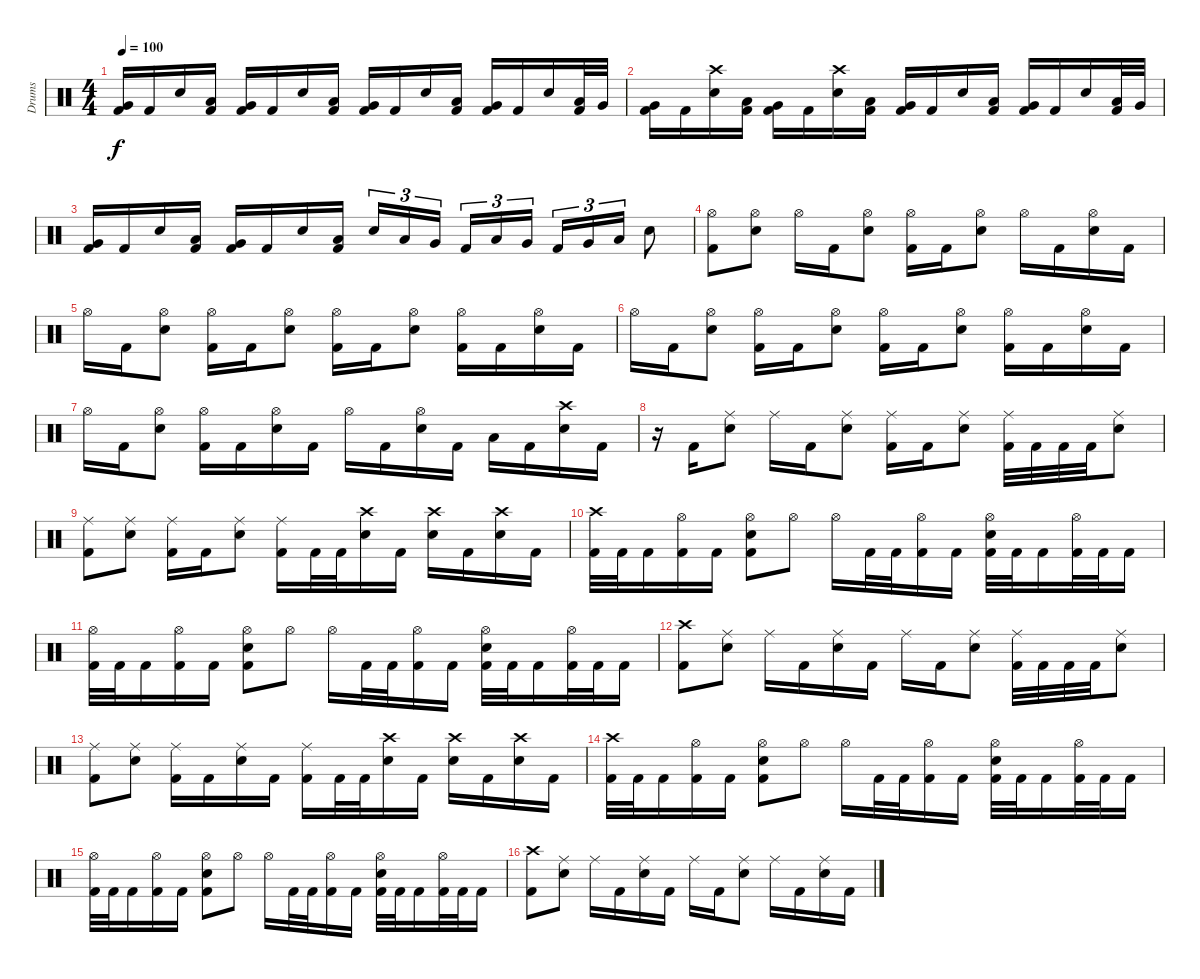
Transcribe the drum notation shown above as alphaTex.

\track ("Drums" "Drums") {instrument percussion}
\staff {score}
\articulation defaults
\ts (4 4)
\tempo 100
\clef neutral
\ks c
("Very Low Tom (hit)" "Kick (hit) 2").16{dy f} "Kick (hit) 2".16 "Electric Snare (hit)".16 ("Low Tom (hit)" "Kick (hit) 2").16 ("Very Low Tom (hit)" "Kick (hit) 2").16 "Kick (hit) 2".16 "Electric Snare (hit)".16 ("Low Tom (hit)" "Kick (hit) 2").16 ("Very Low Tom (hit)" "Kick (hit) 2").16 "Kick (hit) 2".16 "Electric Snare (hit)".16 ("Low Tom (hit)" "Kick (hit) 2").16 ("Very Low Tom (hit)" "Kick (hit) 2").16 "Kick (hit) 2".16 "Electric Snare (hit)".16 ("Low Tom (hit)" "Kick (hit) 2").32 "Very Low Tom (hit)".32 |
("Very Low Tom (hit)" "Kick (hit) 2").16 "Kick (hit) 2".16 ("Crash high (hit)" "Electric Snare (hit)").16 ("Low Tom (hit)" "Kick (hit) 2").16 ("Very Low Tom (hit)" "Kick (hit) 2").16 "Kick (hit) 2".16 ("Crash high (hit)" "Electric Snare (hit)").16 ("Low Tom (hit)" "Kick (hit) 2").16 ("Very Low Tom (hit)" "Kick (hit) 2").16 "Kick (hit) 2".16 "Electric Snare (hit)".16 ("Low Tom (hit)" "Kick (hit) 2").16 ("Very Low Tom (hit)" "Kick (hit) 2").16 "Kick (hit) 2".16 "Electric Snare (hit)".16 ("Low Tom (hit)" "Kick (hit) 2").32 "Very Low Tom (hit)".32 |
("Very Low Tom (hit)" "Kick (hit) 2").16 "Kick (hit) 2".16 "Electric Snare (hit)".16 ("Low Tom (hit)" "Kick (hit) 2").16 ("Very Low Tom (hit)" "Kick (hit) 2").16 "Kick (hit) 2".16 "Electric Snare (hit)".16 ("Low Tom (hit)" "Kick (hit) 2").16 "Electric Snare (hit)".16{tu (3 2)} "Low Tom (hit)".16{tu (3 2)} "Very Low Tom (hit)".16{tu (3 2)} "Kick (hit) 2".16{tu (3 2)} "Low Tom (hit)".16{tu (3 2)} "Very Low Tom (hit)".16{tu (3 2)} "Kick (hit) 2".16{tu (3 2)} "Very Low Tom (hit)".16{tu (3 2)} "Low Floor Tom (hit)".16{tu (3 2)} "Electric Snare (hit)".8 |
("Hi-Hat (open)" "Kick (hit) 2").8 ("Hi-Hat (open)" "Electric Snare (hit)").8 "Hi-Hat (open)".16 "Kick (hit) 2".16 ("Hi-Hat (open)" "Electric Snare (hit)").8 ("Hi-Hat (open)" "Kick (hit) 2").16 "Kick (hit) 2".16 ("Hi-Hat (open)" "Electric Snare (hit)").8 "Hi-Hat (open)".16 "Kick (hit) 2".16 ("Hi-Hat (open)" "Electric Snare (hit)").16 "Kick (hit) 2".16 |
"Hi-Hat (open)".16 "Kick (hit) 2".16 ("Hi-Hat (open)" "Electric Snare (hit)").8 ("Hi-Hat (open)" "Kick (hit) 2").16 "Kick (hit) 2".16 ("Hi-Hat (open)" "Electric Snare (hit)").8 ("Hi-Hat (open)" "Kick (hit) 2").16 "Kick (hit) 2".16 ("Hi-Hat (open)" "Electric Snare (hit)").8 ("Hi-Hat (open)" "Kick (hit) 2").16 "Kick (hit) 2".16 ("Hi-Hat (open)" "Electric Snare (hit)").16 "Kick (hit) 2".16 |
"Hi-Hat (open)".16 "Kick (hit) 2".16 ("Hi-Hat (open)" "Electric Snare (hit)").8 ("Hi-Hat (open)" "Kick (hit) 2").16 "Kick (hit) 2".16 ("Hi-Hat (open)" "Electric Snare (hit)").8 ("Hi-Hat (open)" "Kick (hit) 2").16 "Kick (hit) 2".16 ("Hi-Hat (open)" "Electric Snare (hit)").8 ("Hi-Hat (open)" "Kick (hit) 2").16 "Kick (hit) 2".16 ("Hi-Hat (open)" "Electric Snare (hit)").16 "Kick (hit) 2".16 |
"Hi-Hat (open)".16 "Kick (hit) 2".16 ("Hi-Hat (open)" "Electric Snare (hit)").8 ("Hi-Hat (open)" "Kick (hit) 2").16 "Kick (hit) 2".16 ("Hi-Hat (open)" "Electric Snare (hit)").16 "Kick (hit) 2".16 "Hi-Hat (open)".16 "Kick (hit) 2".16 ("Hi-Hat (open)" "Electric Snare (hit)").16 "Kick (hit) 2".16 "Low Tom (hit)".16 "Kick (hit) 2".16 ("Crash high (hit)" "Electric Snare (hit)").16 "Kick (hit) 2".16 |
r.16 "Kick (hit) 2".16 ("Ride (middle)" "Electric Snare (hit)").8 "Ride (middle)".16 "Kick (hit) 2".16 ("Ride (middle)" "Electric Snare (hit)").8 ("Ride (middle)" "Kick (hit) 2").16 "Kick (hit) 2".16 ("Ride (middle)" "Electric Snare (hit)").8 ("Ride (middle)" "Kick (hit) 2").32 "Kick (hit) 2".32 "Kick (hit) 2".32 "Kick (hit) 2".32 ("Ride (middle)" "Electric Snare (hit)").8 |
("Ride (middle)" "Kick (hit) 2").8 ("Ride (middle)" "Electric Snare (hit)").8 ("Ride (middle)" "Kick (hit) 2").16 "Kick (hit) 2".16 ("Ride (middle)" "Electric Snare (hit)").8 ("Ride (middle)" "Kick (hit) 2").16 "Kick (hit) 2".32 "Kick (hit) 2".32 ("Crash high (hit)" "Electric Snare (hit)").16 "Kick (hit) 2".16 ("Crash high (hit)" "Electric Snare (hit)").16 "Kick (hit) 2".16 ("Crash high (hit)" "Electric Snare (hit)").16 "Kick (hit) 2".16 |
("Crash high (hit)" "Kick (hit) 2").32 "Kick (hit) 2".32 "Kick (hit) 2".16 ("Hi-Hat (open)" "Kick (hit) 2").16 "Kick (hit) 2".16 ("Hi-Hat (open)" "Electric Snare (hit)" "Kick (hit) 2").8 "Hi-Hat (open)".8 "Hi-Hat (open)".16 "Kick (hit) 2".32 "Kick (hit) 2".32 ("Hi-Hat (open)" "Kick (hit) 2").16 "Kick (hit) 2".16 ("Hi-Hat (open)" "Electric Snare (hit)" "Kick (hit) 2").32 "Kick (hit) 2".32 "Kick (hit) 2".16 ("Hi-Hat (open)" "Kick (hit) 2").32 "Kick (hit) 2".32 "Kick (hit) 2".16 |
("Hi-Hat (open)" "Kick (hit) 2").32 "Kick (hit) 2".32 "Kick (hit) 2".16 ("Hi-Hat (open)" "Kick (hit) 2").16 "Kick (hit) 2".16 ("Hi-Hat (open)" "Electric Snare (hit)" "Kick (hit) 2").8 "Hi-Hat (open)".8 "Hi-Hat (open)".16 "Kick (hit) 2".32 "Kick (hit) 2".32 ("Hi-Hat (open)" "Kick (hit) 2").16 "Kick (hit) 2".16 ("Hi-Hat (open)" "Electric Snare (hit)" "Kick (hit) 2").32 "Kick (hit) 2".32 "Kick (hit) 2".16 ("Hi-Hat (open)" "Kick (hit) 2").32 "Kick (hit) 2".32 "Kick (hit) 2".16 |
("Crash high (hit)" "Kick (hit) 2").8 ("Ride (middle)" "Electric Snare (hit)").8 "Ride (middle)".16 "Kick (hit) 2".16 ("Ride (middle)" "Electric Snare (hit)").16 "Kick (hit) 2".16 "Ride (middle)".16 "Kick (hit) 2".16 ("Ride (middle)" "Electric Snare (hit)").8 ("Ride (middle)" "Kick (hit) 2").32 "Kick (hit) 2".32 "Kick (hit) 2".32 "Kick (hit) 2".32 ("Ride (middle)" "Electric Snare (hit)").8 |
("Ride (middle)" "Kick (hit) 2").8 ("Ride (middle)" "Electric Snare (hit)").8 ("Ride (middle)" "Kick (hit) 2").16 "Kick (hit) 2".16 ("Ride (middle)" "Electric Snare (hit)").16 "Kick (hit) 2".16 ("Ride (middle)" "Kick (hit) 2").16 "Kick (hit) 2".32 "Kick (hit) 2".32 ("Crash high (hit)" "Electric Snare (hit)").16 "Kick (hit) 2".16 ("Crash high (hit)" "Electric Snare (hit)").16 "Kick (hit) 2".16 ("Crash high (hit)" "Electric Snare (hit)").16 "Kick (hit) 2".16 |
("Crash high (hit)" "Kick (hit) 2").32 "Kick (hit) 2".32 "Kick (hit) 2".16 ("Hi-Hat (open)" "Kick (hit) 2").16 "Kick (hit) 2".16 ("Hi-Hat (open)" "Electric Snare (hit)" "Kick (hit) 2").8 "Hi-Hat (open)".8 "Hi-Hat (open)".16 "Kick (hit) 2".32 "Kick (hit) 2".32 ("Hi-Hat (open)" "Kick (hit) 2").16 "Kick (hit) 2".16 ("Hi-Hat (open)" "Electric Snare (hit)" "Kick (hit) 2").32 "Kick (hit) 2".32 "Kick (hit) 2".16 ("Hi-Hat (open)" "Kick (hit) 2").32 "Kick (hit) 2".32 "Kick (hit) 2".16 |
("Hi-Hat (open)" "Kick (hit) 2").32 "Kick (hit) 2".32 "Kick (hit) 2".16 ("Hi-Hat (open)" "Kick (hit) 2").16 "Kick (hit) 2".16 ("Hi-Hat (open)" "Electric Snare (hit)" "Kick (hit) 2").8 "Hi-Hat (open)".8 "Hi-Hat (open)".16 "Kick (hit) 2".32 "Kick (hit) 2".32 ("Hi-Hat (open)" "Kick (hit) 2").16 "Kick (hit) 2".16 ("Hi-Hat (open)" "Electric Snare (hit)" "Kick (hit) 2").32 "Kick (hit) 2".32 "Kick (hit) 2".16 ("Hi-Hat (open)" "Kick (hit) 2").32 "Kick (hit) 2".32 "Kick (hit) 2".16 |
("Crash high (hit)" "Kick (hit) 2").8 ("Ride (middle)" "Electric Snare (hit)").8 "Ride (middle)".16 "Kick (hit) 2".16 ("Ride (middle)" "Electric Snare (hit)").16 "Kick (hit) 2".16 "Ride (middle)".16 "Kick (hit) 2".16 ("Ride (middle)" "Electric Snare (hit)").8 "Ride (middle)".16 "Kick (hit) 2".16 ("Ride (middle)" "Electric Snare (hit)").16 "Kick (hit) 2".16
